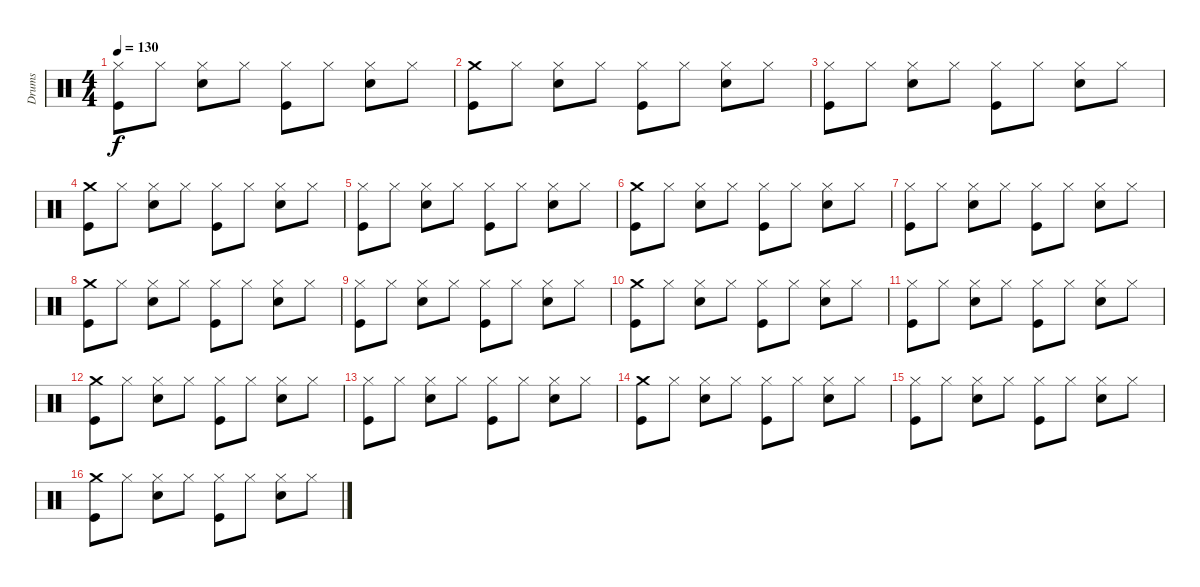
\track ("Drums" "Drums") {instrument percussion}
\staff {score}
\articulation defaults
\ts (4 4)
\tempo 130
\clef neutral
\ks c
("Hi-Hat (closed)" "Kick (hit)").8{dy f} "Hi-Hat (closed)".8 ("Snare (hit) 2" "Hi-Hat (closed)").8 "Hi-Hat (closed)".8 ("Hi-Hat (closed)" "Kick (hit)").8 "Hi-Hat (closed)".8 ("Snare (hit) 2" "Hi-Hat (closed)").8 "Hi-Hat (closed)".8 |
("Crash medium (hit)" "Kick (hit)").8 "Hi-Hat (closed)".8 ("Snare (hit) 2" "Hi-Hat (closed)").8 "Hi-Hat (closed)".8 ("Hi-Hat (closed)" "Kick (hit)").8 "Hi-Hat (closed)".8 ("Snare (hit) 2" "Hi-Hat (closed)").8 "Hi-Hat (closed)".8 |
("Hi-Hat (closed)" "Kick (hit)").8 "Hi-Hat (closed)".8 ("Snare (hit) 2" "Hi-Hat (closed)").8 "Hi-Hat (closed)".8 ("Hi-Hat (closed)" "Kick (hit)").8 "Hi-Hat (closed)".8 ("Snare (hit) 2" "Hi-Hat (closed)").8 "Hi-Hat (closed)".8 |
("Crash medium (hit)" "Kick (hit)").8 "Hi-Hat (closed)".8 ("Snare (hit) 2" "Hi-Hat (closed)").8 "Hi-Hat (closed)".8 ("Hi-Hat (closed)" "Kick (hit)").8 "Hi-Hat (closed)".8 ("Snare (hit) 2" "Hi-Hat (closed)").8 "Hi-Hat (closed)".8 |
("Hi-Hat (closed)" "Kick (hit)").8 "Hi-Hat (closed)".8 ("Snare (hit) 2" "Hi-Hat (closed)").8 "Hi-Hat (closed)".8 ("Hi-Hat (closed)" "Kick (hit)").8 "Hi-Hat (closed)".8 ("Snare (hit) 2" "Hi-Hat (closed)").8 "Hi-Hat (closed)".8 |
("Crash medium (hit)" "Kick (hit)").8 "Hi-Hat (closed)".8 ("Snare (hit) 2" "Hi-Hat (closed)").8 "Hi-Hat (closed)".8 ("Hi-Hat (closed)" "Kick (hit)").8 "Hi-Hat (closed)".8 ("Snare (hit) 2" "Hi-Hat (closed)").8 "Hi-Hat (closed)".8 |
("Hi-Hat (closed)" "Kick (hit)").8 "Hi-Hat (closed)".8 ("Snare (hit) 2" "Hi-Hat (closed)").8 "Hi-Hat (closed)".8 ("Hi-Hat (closed)" "Kick (hit)").8 "Hi-Hat (closed)".8 ("Snare (hit) 2" "Hi-Hat (closed)").8 "Hi-Hat (closed)".8 |
("Crash medium (hit)" "Kick (hit)").8 "Hi-Hat (closed)".8 ("Snare (hit) 2" "Hi-Hat (closed)").8 "Hi-Hat (closed)".8 ("Hi-Hat (closed)" "Kick (hit)").8 "Hi-Hat (closed)".8 ("Snare (hit) 2" "Hi-Hat (closed)").8 "Hi-Hat (closed)".8 |
("Hi-Hat (closed)" "Kick (hit)").8 "Hi-Hat (closed)".8 ("Snare (hit) 2" "Hi-Hat (closed)").8 "Hi-Hat (closed)".8 ("Hi-Hat (closed)" "Kick (hit)").8 "Hi-Hat (closed)".8 ("Snare (hit) 2" "Hi-Hat (closed)").8 "Hi-Hat (closed)".8 |
("Crash medium (hit)" "Kick (hit)").8 "Hi-Hat (closed)".8 ("Snare (hit) 2" "Hi-Hat (closed)").8 "Hi-Hat (closed)".8 ("Hi-Hat (closed)" "Kick (hit)").8 "Hi-Hat (closed)".8 ("Snare (hit) 2" "Hi-Hat (closed)").8 "Hi-Hat (closed)".8 |
("Hi-Hat (closed)" "Kick (hit)").8 "Hi-Hat (closed)".8 ("Snare (hit) 2" "Hi-Hat (closed)").8 "Hi-Hat (closed)".8 ("Hi-Hat (closed)" "Kick (hit)").8 "Hi-Hat (closed)".8 ("Snare (hit) 2" "Hi-Hat (closed)").8 "Hi-Hat (closed)".8 |
("Crash medium (hit)" "Kick (hit)").8 "Hi-Hat (closed)".8 ("Snare (hit) 2" "Hi-Hat (closed)").8 "Hi-Hat (closed)".8 ("Hi-Hat (closed)" "Kick (hit)").8 "Hi-Hat (closed)".8 ("Snare (hit) 2" "Hi-Hat (closed)").8 "Hi-Hat (closed)".8 |
("Hi-Hat (closed)" "Kick (hit)").8 "Hi-Hat (closed)".8 ("Snare (hit) 2" "Hi-Hat (closed)").8 "Hi-Hat (closed)".8 ("Hi-Hat (closed)" "Kick (hit)").8 "Hi-Hat (closed)".8 ("Snare (hit) 2" "Hi-Hat (closed)").8 "Hi-Hat (closed)".8 |
("Crash medium (hit)" "Kick (hit)").8 "Hi-Hat (closed)".8 ("Snare (hit) 2" "Hi-Hat (closed)").8 "Hi-Hat (closed)".8 ("Hi-Hat (closed)" "Kick (hit)").8 "Hi-Hat (closed)".8 ("Snare (hit) 2" "Hi-Hat (closed)").8 "Hi-Hat (closed)".8 |
("Hi-Hat (closed)" "Kick (hit)").8 "Hi-Hat (closed)".8 ("Snare (hit) 2" "Hi-Hat (closed)").8 "Hi-Hat (closed)".8 ("Hi-Hat (closed)" "Kick (hit)").8 "Hi-Hat (closed)".8 ("Snare (hit) 2" "Hi-Hat (closed)").8 "Hi-Hat (closed)".8 |
("Crash medium (hit)" "Kick (hit)").8 "Hi-Hat (closed)".8 ("Snare (hit) 2" "Hi-Hat (closed)").8 "Hi-Hat (closed)".8 ("Hi-Hat (closed)" "Kick (hit)").8 "Hi-Hat (closed)".8 ("Snare (hit) 2" "Hi-Hat (closed)").8 "Hi-Hat (closed)".8
